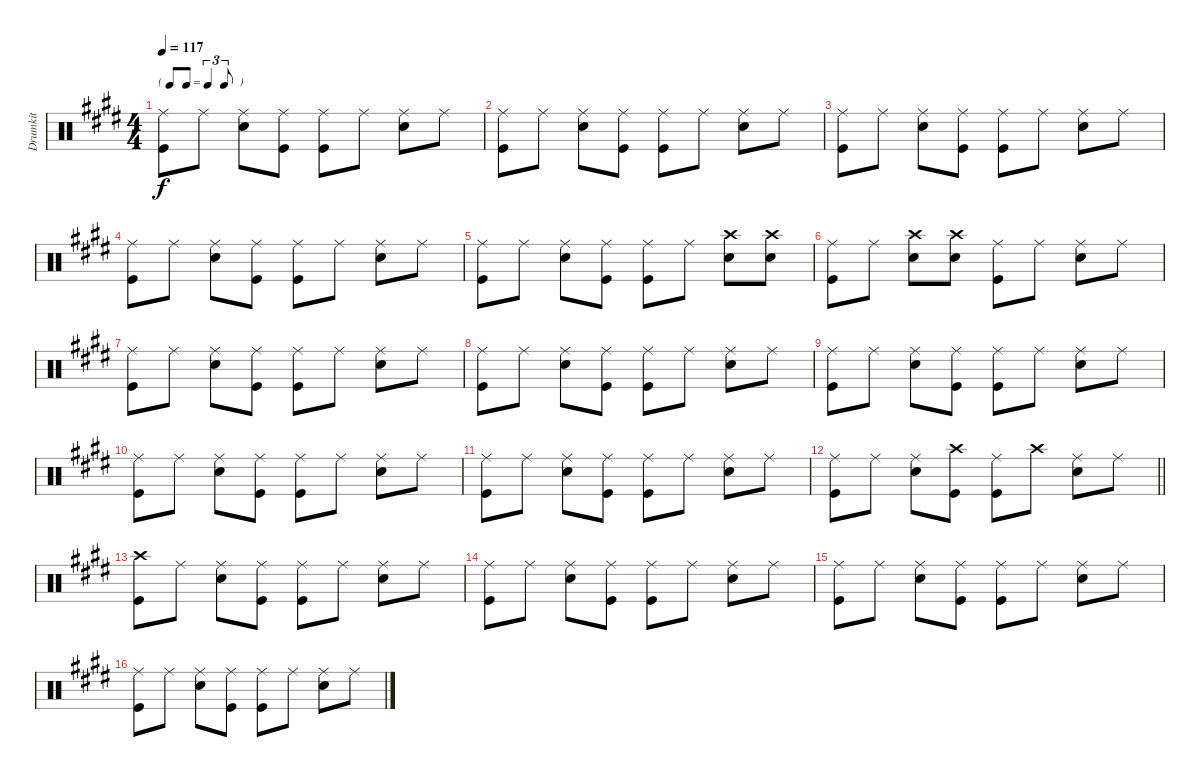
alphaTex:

\track ("Drumkit" "Drumkit") {instrument percussion}
\staff {score}
\articulation defaults
\ts (4 4)
\tf triplet8th
\tempo 117
\clef neutral
\ks e
("Ride (middle)" "Kick (hit)").8{dy f} "Ride (middle)".8 ("Ride (middle)" "Snare (hit) 2").8 ("Ride (middle)" "Kick (hit)").8 ("Ride (middle)" "Kick (hit)").8 "Ride (middle)".8 ("Ride (middle)" "Snare (hit) 2").8 "Ride (middle)".8 |
("Ride (middle)" "Kick (hit)").8 "Ride (middle)".8 ("Ride (middle)" "Snare (hit) 2").8 ("Ride (middle)" "Kick (hit)").8 ("Ride (middle)" "Kick (hit)").8 "Ride (middle)".8 ("Ride (middle)" "Snare (hit) 2").8 "Ride (middle)".8 |
("Ride (middle)" "Kick (hit)").8 "Ride (middle)".8 ("Ride (middle)" "Snare (hit) 2").8 ("Ride (middle)" "Kick (hit)").8 ("Ride (middle)" "Kick (hit)").8 "Ride (middle)".8 ("Ride (middle)" "Snare (hit) 2").8 "Ride (middle)".8 |
("Ride (middle)" "Kick (hit)").8 "Ride (middle)".8 ("Ride (middle)" "Snare (hit) 2").8 ("Ride (middle)" "Kick (hit)").8 ("Ride (middle)" "Kick (hit)").8 "Ride (middle)".8 ("Ride (middle)" "Snare (hit) 2").8 "Ride (middle)".8 |
("Ride (middle)" "Kick (hit)").8 "Ride (middle)".8 ("Ride (middle)" "Snare (hit) 2").8 ("Ride (middle)" "Kick (hit)").8 ("Ride (middle)" "Kick (hit)").8 "Ride (middle)".8 ("Crash high (hit)" "Snare (hit) 2").8 ("Crash high (hit)" "Snare (hit) 2").8 |
("Ride (middle)" "Kick (hit)").8 "Ride (middle)".8 ("Crash high (hit)" "Snare (hit) 2").8 ("Crash high (hit)" "Snare (hit) 2").8 ("Ride (middle)" "Kick (hit)").8 "Ride (middle)".8 ("Ride (middle)" "Snare (hit) 2").8 "Ride (middle)".8 |
("Ride (middle)" "Kick (hit)").8 "Ride (middle)".8 ("Ride (middle)" "Snare (hit) 2").8 ("Ride (middle)" "Kick (hit)").8 ("Ride (middle)" "Kick (hit)").8 "Ride (middle)".8 ("Ride (middle)" "Snare (hit) 2").8 "Ride (middle)".8 |
("Ride (middle)" "Kick (hit)").8 "Ride (middle)".8 ("Ride (middle)" "Snare (hit) 2").8 ("Ride (middle)" "Kick (hit)").8 ("Ride (middle)" "Kick (hit)").8 "Ride (middle)".8 ("Ride (middle)" "Snare (hit) 2").8 "Ride (middle)".8 |
("Ride (middle)" "Kick (hit)").8 "Ride (middle)".8 ("Ride (middle)" "Snare (hit) 2").8 ("Ride (middle)" "Kick (hit)").8 ("Ride (middle)" "Kick (hit)").8 "Ride (middle)".8 ("Ride (middle)" "Snare (hit) 2").8 "Ride (middle)".8 |
("Ride (middle)" "Kick (hit)").8 "Ride (middle)".8 ("Ride (middle)" "Snare (hit) 2").8 ("Ride (middle)" "Kick (hit)").8 ("Ride (middle)" "Kick (hit)").8 "Ride (middle)".8 ("Ride (middle)" "Snare (hit) 2").8 "Ride (middle)".8 |
("Ride (middle)" "Kick (hit)").8 "Ride (middle)".8 ("Ride (middle)" "Snare (hit) 2").8 ("Ride (middle)" "Kick (hit)").8 ("Ride (middle)" "Kick (hit)").8 "Ride (middle)".8 ("Ride (middle)" "Snare (hit) 2").8 "Ride (middle)".8 |
\barLineRight lightlight
("Ride (middle)" "Kick (hit)").8 "Ride (middle)".8 ("Ride (middle)" "Snare (hit) 2").8 ("Crash high (hit)" "Kick (hit)").8 ("Ride (middle)" "Kick (hit)").8 "Crash high (hit)".8 ("Ride (middle)" "Snare (hit) 2").8 "Ride (middle)".8 |
("Crash high (hit)" "Kick (hit)").8 "Ride (middle)".8 ("Ride (middle)" "Snare (hit) 2").8 ("Ride (middle)" "Kick (hit)").8 ("Ride (middle)" "Kick (hit)").8 "Ride (middle)".8 ("Ride (middle)" "Snare (hit) 2").8 "Ride (middle)".8 |
("Ride (middle)" "Kick (hit)").8 "Ride (middle)".8 ("Ride (middle)" "Snare (hit) 2").8 ("Ride (middle)" "Kick (hit)").8 ("Ride (middle)" "Kick (hit)").8 "Ride (middle)".8 ("Ride (middle)" "Snare (hit) 2").8 "Ride (middle)".8 |
("Ride (middle)" "Kick (hit)").8 "Ride (middle)".8 ("Ride (middle)" "Snare (hit) 2").8 ("Ride (middle)" "Kick (hit)").8 ("Ride (middle)" "Kick (hit)").8 "Ride (middle)".8 ("Ride (middle)" "Snare (hit) 2").8 "Ride (middle)".8 |
("Ride (middle)" "Kick (hit)").8 "Ride (middle)".8 ("Ride (middle)" "Snare (hit) 2").8 ("Ride (middle)" "Kick (hit)").8 ("Ride (middle)" "Kick (hit)").8 "Ride (middle)".8 ("Ride (middle)" "Snare (hit) 2").8 "Ride (middle)".8
